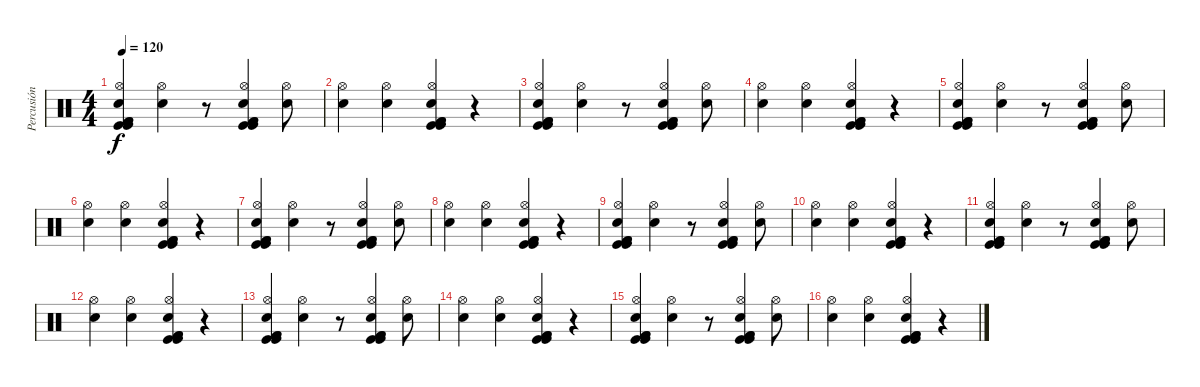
\track ("Percusión" "Percusión") {instrument percussion}
\staff {score}
\articulation defaults
\ts (4 4)
\tempo 120
\clef neutral
\ks c
("Kick (hit) 2" "Hi-Hat (open)" "Snare (hit) 2" "Kick (hit)" "Kick (hit)" "Kick (hit) 2").4{dy f} ("Hi-Hat (open)" "Snare (hit) 2").4 r.8 ("Kick (hit) 2" "Hi-Hat (open)" "Snare (hit) 2" "Kick (hit)" "Kick (hit)" "Kick (hit) 2").4 ("Hi-Hat (open)" "Snare (hit) 2").8 |
("Hi-Hat (open)" "Snare (hit) 2").4 ("Hi-Hat (open)" "Snare (hit) 2").4 ("Kick (hit) 2" "Hi-Hat (open)" "Snare (hit) 2" "Kick (hit)" "Kick (hit)" "Kick (hit) 2").4 r.4 |
("Kick (hit) 2" "Hi-Hat (open)" "Snare (hit) 2" "Kick (hit)" "Kick (hit)" "Kick (hit) 2").4 ("Hi-Hat (open)" "Snare (hit) 2").4 r.8 ("Kick (hit) 2" "Hi-Hat (open)" "Snare (hit) 2" "Kick (hit)" "Kick (hit)" "Kick (hit) 2").4 ("Hi-Hat (open)" "Snare (hit) 2").8 |
("Hi-Hat (open)" "Snare (hit) 2").4 ("Hi-Hat (open)" "Snare (hit) 2").4 ("Kick (hit) 2" "Hi-Hat (open)" "Snare (hit) 2" "Kick (hit)" "Kick (hit)" "Kick (hit) 2").4 r.4 |
("Kick (hit) 2" "Hi-Hat (open)" "Snare (hit) 2" "Kick (hit)" "Kick (hit)" "Kick (hit) 2").4 ("Hi-Hat (open)" "Snare (hit) 2").4 r.8 ("Kick (hit) 2" "Hi-Hat (open)" "Snare (hit) 2" "Kick (hit)" "Kick (hit)" "Kick (hit) 2").4 ("Hi-Hat (open)" "Snare (hit) 2").8 |
("Hi-Hat (open)" "Snare (hit) 2").4 ("Hi-Hat (open)" "Snare (hit) 2").4 ("Kick (hit) 2" "Hi-Hat (open)" "Snare (hit) 2" "Kick (hit)" "Kick (hit)" "Kick (hit) 2").4 r.4 |
("Kick (hit) 2" "Hi-Hat (open)" "Snare (hit) 2" "Kick (hit)" "Kick (hit)" "Kick (hit) 2").4 ("Hi-Hat (open)" "Snare (hit) 2").4 r.8 ("Kick (hit) 2" "Hi-Hat (open)" "Snare (hit) 2" "Kick (hit)" "Kick (hit)" "Kick (hit) 2").4 ("Hi-Hat (open)" "Snare (hit) 2").8 |
("Hi-Hat (open)" "Snare (hit) 2").4 ("Hi-Hat (open)" "Snare (hit) 2").4 ("Kick (hit) 2" "Hi-Hat (open)" "Snare (hit) 2" "Kick (hit)" "Kick (hit)" "Kick (hit) 2").4 r.4 |
("Kick (hit) 2" "Hi-Hat (open)" "Snare (hit) 2" "Kick (hit)" "Kick (hit)" "Kick (hit) 2").4 ("Hi-Hat (open)" "Snare (hit) 2").4 r.8 ("Kick (hit) 2" "Hi-Hat (open)" "Snare (hit) 2" "Kick (hit)" "Kick (hit)" "Kick (hit) 2").4 ("Hi-Hat (open)" "Snare (hit) 2").8 |
("Hi-Hat (open)" "Snare (hit) 2").4 ("Hi-Hat (open)" "Snare (hit) 2").4 ("Kick (hit) 2" "Hi-Hat (open)" "Snare (hit) 2" "Kick (hit)" "Kick (hit) 2" "Kick (hit)").4 r.4 |
("Kick (hit) 2" "Hi-Hat (open)" "Snare (hit) 2" "Kick (hit)" "Kick (hit) 2" "Kick (hit)").4 ("Hi-Hat (open)" "Snare (hit) 2").4 r.8 ("Kick (hit) 2" "Hi-Hat (open)" "Snare (hit) 2" "Kick (hit)" "Kick (hit) 2" "Kick (hit)").4 ("Hi-Hat (open)" "Snare (hit) 2").8 |
("Hi-Hat (open)" "Snare (hit) 2").4 ("Hi-Hat (open)" "Snare (hit) 2").4 ("Kick (hit) 2" "Hi-Hat (open)" "Snare (hit) 2" "Kick (hit)" "Kick (hit) 2" "Kick (hit)").4 r.4 |
("Kick (hit) 2" "Hi-Hat (open)" "Snare (hit) 2" "Kick (hit)" "Kick (hit) 2" "Kick (hit)").4 ("Hi-Hat (open)" "Snare (hit) 2").4 r.8 ("Kick (hit) 2" "Hi-Hat (open)" "Snare (hit) 2" "Kick (hit)" "Kick (hit) 2" "Kick (hit)").4 ("Hi-Hat (open)" "Snare (hit) 2").8 |
("Hi-Hat (open)" "Snare (hit) 2").4 ("Hi-Hat (open)" "Snare (hit) 2").4 ("Kick (hit) 2" "Hi-Hat (open)" "Snare (hit) 2" "Kick (hit)" "Kick (hit)" "Kick (hit) 2").4 r.4 |
("Kick (hit) 2" "Hi-Hat (open)" "Snare (hit) 2" "Kick (hit)" "Kick (hit) 2" "Kick (hit)").4 ("Hi-Hat (open)" "Snare (hit) 2").4 r.8 ("Kick (hit) 2" "Hi-Hat (open)" "Snare (hit) 2" "Kick (hit)" "Kick (hit) 2" "Kick (hit)").4 ("Hi-Hat (open)" "Snare (hit) 2").8 |
("Hi-Hat (open)" "Snare (hit) 2").4 ("Hi-Hat (open)" "Snare (hit) 2").4 ("Kick (hit) 2" "Hi-Hat (open)" "Snare (hit) 2" "Kick (hit)" "Kick (hit)" "Kick (hit) 2").4 r.4
